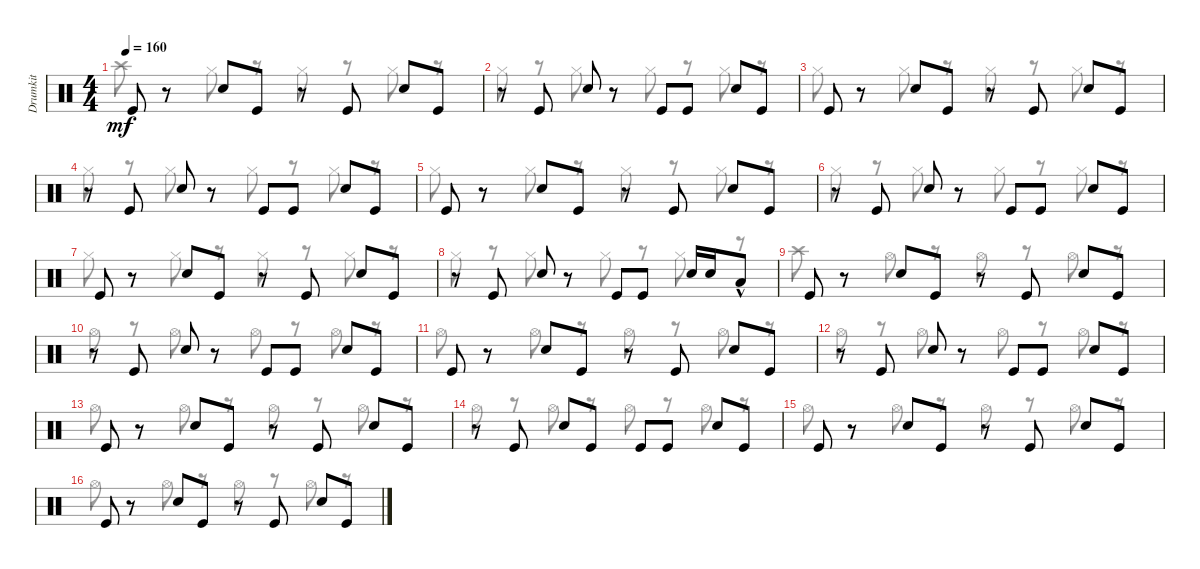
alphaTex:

\track ("Drumkit" "Drumkit") {instrument percussion}
\staff {score}
\articulation defaults
\voice
\ts (4 4)
\section ("" "")
\tempo 160
\clef neutral
\ks c "Kick (hit)".8{dy mf}
r.8 "Snare (hit) 2".8 "Kick (hit)".8 r.8 "Kick (hit)".8 "Snare (hit) 2".8 "Kick (hit)".8 |
r.8 "Kick (hit)".8 "Snare (hit) 2".8 r.8 "Kick (hit)".8 "Kick (hit)".8 "Snare (hit) 2".8 "Kick (hit)".8 |
"Kick (hit)".8 r.8 "Snare (hit) 2".8 "Kick (hit)".8 r.8 "Kick (hit)".8 "Snare (hit) 2".8 "Kick (hit)".8 |
r.8 "Kick (hit)".8 "Snare (hit) 2".8 r.8 "Kick (hit)".8 "Kick (hit)".8 "Snare (hit) 2".8 "Kick (hit)".8 |
"Kick (hit)".8 r.8 "Snare (hit) 2".8 "Kick (hit)".8 r.8 "Kick (hit)".8 "Snare (hit) 2".8 "Kick (hit)".8 |
r.8 "Kick (hit)".8 "Snare (hit) 2".8 r.8 "Kick (hit)".8 "Kick (hit)".8 "Snare (hit) 2".8 "Kick (hit)".8 |
"Kick (hit)".8 r.8 "Snare (hit) 2".8 "Kick (hit)".8 r.8 "Kick (hit)".8 "Snare (hit) 2".8 "Kick (hit)".8 |
r.8 "Kick (hit)".8 "Snare (hit) 2".8 r.8 "Kick (hit)".8 "Kick (hit)".8 "Snare (hit) 2".16 "Snare (hit) 2".16 "Low Tom (hit)"{hac}.8 |
"Kick (hit)".8 r.8 "Snare (hit) 2".8 "Kick (hit)".8 r.8 "Kick (hit)".8 "Snare (hit) 2".8 "Kick (hit)".8 |
r.8 "Kick (hit)".8 "Snare (hit) 2".8 r.8 "Kick (hit)".8 "Kick (hit)".8 "Snare (hit) 2".8 "Kick (hit)".8 |
"Kick (hit)".8 r.8 "Snare (hit) 2".8 "Kick (hit)".8 r.8 "Kick (hit)".8 "Snare (hit) 2".8 "Kick (hit)".8 |
r.8 "Kick (hit)".8 "Snare (hit) 2".8 r.8 "Kick (hit)".8 "Kick (hit)".8 "Snare (hit) 2".8 "Kick (hit)".8 |
"Kick (hit)".8 r.8 "Snare (hit) 2".8 "Kick (hit)".8 r.8 "Kick (hit)".8 "Snare (hit) 2".8 "Kick (hit)".8 |
r.8 "Kick (hit)".8 "Snare (hit) 2".8 "Kick (hit)".8 "Kick (hit)".8 "Kick (hit)".8 "Snare (hit) 2".8 "Kick (hit)".8 |
"Kick (hit)".8 r.8 "Snare (hit) 2".8 "Kick (hit)".8 r.8 "Kick (hit)".8 "Snare (hit) 2".8 "Kick (hit)".8 |
"Kick (hit)".8 r.8 "Snare (hit) 2".8 "Kick (hit)".8 r.8 "Kick (hit)".8 "Snare (hit) 2".8 "Kick (hit)".8
\voice
\clef neutral
\ottava regular
\simile none
\ks c "Crash high (hit)".8{dy mf}
r.8 "Hi-Hat (closed)".8 r.8 "Hi-Hat (closed)".8 r.8 "Hi-Hat (closed)".8 r.8 |
"Hi-Hat (closed)".8 r.8 "Hi-Hat (closed)".8 r.8 "Hi-Hat (closed)".8 r.8 "Hi-Hat (closed)".8 r.8 |
"Hi-Hat (closed)".8 r.8 "Hi-Hat (closed)".8 r.8 "Hi-Hat (closed)".8 r.8 "Hi-Hat (closed)".8 r.8 |
"Hi-Hat (closed)".8 r.8 "Hi-Hat (closed)".8 r.8 "Hi-Hat (closed)".8 r.8 "Hi-Hat (closed)".8 r.8 |
"Hi-Hat (closed)".8 r.8 "Hi-Hat (closed)".8 r.8 "Hi-Hat (closed)".8 r.8 "Hi-Hat (closed)".8 r.8 |
"Hi-Hat (closed)".8 r.8 "Hi-Hat (closed)".8 r.8 "Hi-Hat (closed)".8 r.8 "Hi-Hat (closed)".8 r.8 |
"Hi-Hat (closed)".8 r.8 "Hi-Hat (closed)".8 r.8 "Hi-Hat (closed)".8 r.8 "Hi-Hat (closed)".8 r.8 |
"Hi-Hat (closed)".8 r.8 "Hi-Hat (closed)".8 r.8 "Hi-Hat (closed)".8 r.8 "Hi-Hat (closed)".8 r.8 |
"Crash high (hit)".8 r.8 "Hi-Hat (open)".8 r.8 "Hi-Hat (open)".8 r.8 "Hi-Hat (open)".8 r.8 |
"Hi-Hat (open)".8 r.8 "Hi-Hat (open)".8 r.8 "Hi-Hat (open)".8 r.8 "Hi-Hat (open)".8 r.8 |
"Hi-Hat (open)".8 r.8 "Hi-Hat (open)".8 r.8 "Hi-Hat (open)".8 r.8 "Hi-Hat (open)".8 r.8 |
"Hi-Hat (open)".8 r.8 "Hi-Hat (open)".8 r.8 "Hi-Hat (open)".8 r.8 "Hi-Hat (open)".8 r.8 |
"Hi-Hat (open)".8 r.8 "Hi-Hat (open)".8 r.8 "Hi-Hat (open)".8 r.8 "Hi-Hat (open)".8 r.8 |
"Hi-Hat (open)".8 r.8 "Hi-Hat (open)".8 r.8 "Hi-Hat (open)".8 r.8 "Hi-Hat (open)".8 r.8 |
"Hi-Hat (open)".8 r.8 "Hi-Hat (open)".8 r.8 "Hi-Hat (open)".8 r.8 "Hi-Hat (open)".8 r.8 |
"Hi-Hat (open)".8 r.8 "Hi-Hat (open)".8 r.8 "Hi-Hat (open)".8 r.8 "Hi-Hat (open)".8 r.8
